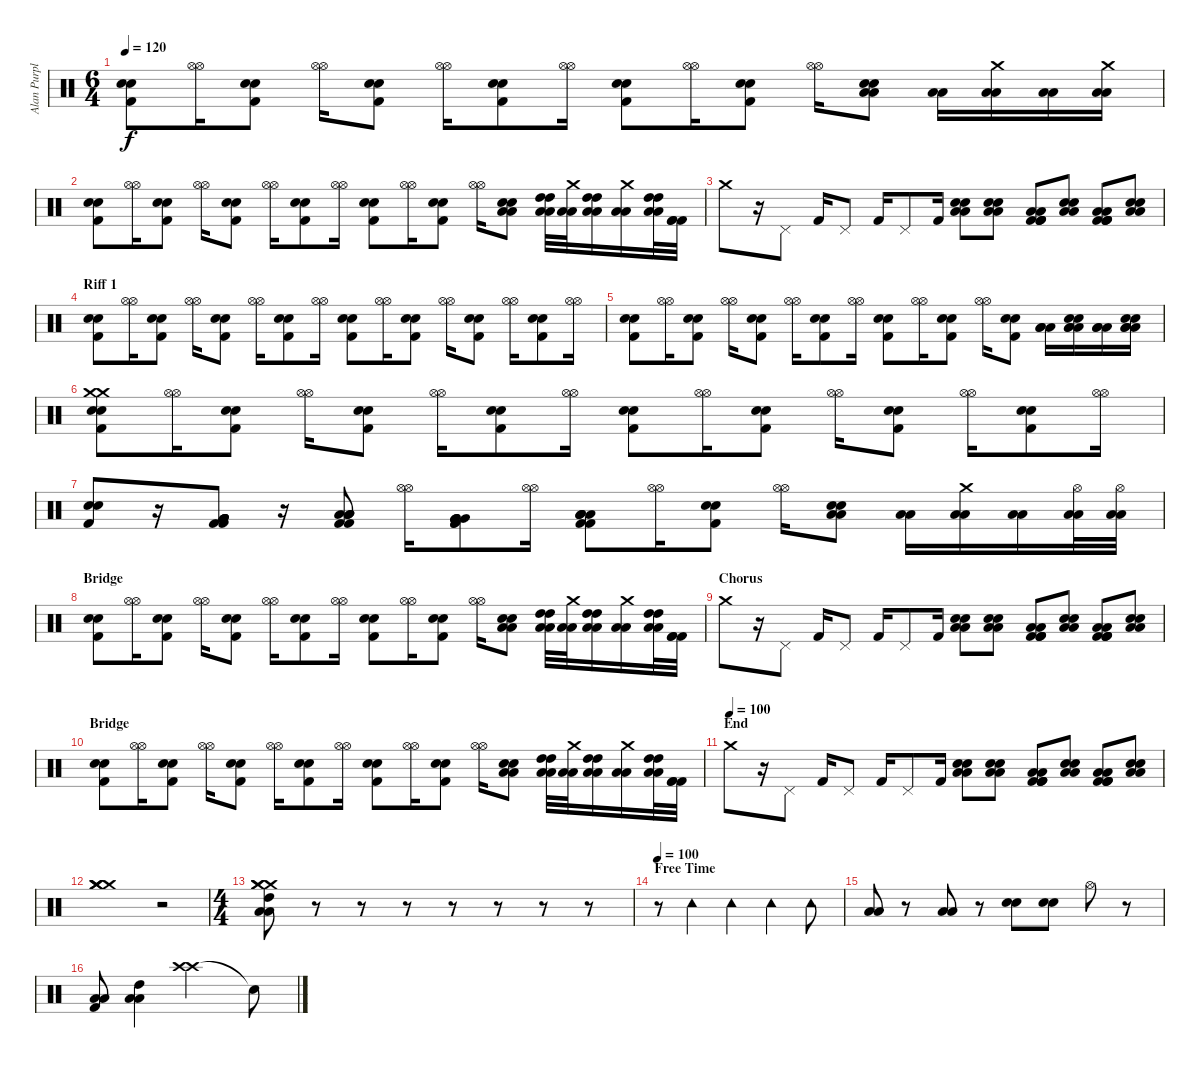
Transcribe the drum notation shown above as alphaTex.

\track ("Alan Purple" "Alan Purpl") {instrument percussion}
\staff {score}
\articulation defaults
\ts (6 4)
\tempo 120
\clef neutral
\ks c
("Electric Snare (hit)" "Kick (hit) 2" "Electric Snare (hit)").8{dy f} ("Hi-Hat (open)" "Hi-Hat (open)").16 ("Electric Snare (hit)" "Kick (hit) 2" "Electric Snare (hit)").8 ("Hi-Hat (open)" "Hi-Hat (open)").16 ("Electric Snare (hit)" "Kick (hit) 2" "Electric Snare (hit)").8 ("Hi-Hat (open)" "Hi-Hat (open)").16 ("Electric Snare (hit)" "Kick (hit) 2" "Electric Snare (hit)").8 ("Hi-Hat (open)" "Hi-Hat (open)").16 ("Electric Snare (hit)" "Kick (hit) 2" "Electric Snare (hit)").8 ("Hi-Hat (open)" "Hi-Hat (open)").16 ("Electric Snare (hit)" "Kick (hit) 2" "Electric Snare (hit)").8 ("Hi-Hat (open)" "Hi-Hat (open)").16 ("Electric Snare (hit)" "Low Tom (hit)" "Low Tom (hit)" "Electric Snare (hit)").8 ("Low Tom (hit)" "Low Tom (hit)").16 ("Crash medium (hit)" "Low Tom (hit)" "Low Tom (hit)").16 ("Low Tom (hit)" "Low Tom (hit)").16 ("Crash medium (hit)" "Low Tom (hit)" "Low Tom (hit)").16 |
("Electric Snare (hit)" "Kick (hit) 2" "Electric Snare (hit)").8 ("Hi-Hat (open)" "Hi-Hat (open)").16 ("Electric Snare (hit)" "Kick (hit) 2" "Electric Snare (hit)").8 ("Hi-Hat (open)" "Hi-Hat (open)").16 ("Electric Snare (hit)" "Kick (hit) 2" "Electric Snare (hit)").8 ("Hi-Hat (open)" "Hi-Hat (open)").16 ("Electric Snare (hit)" "Kick (hit) 2" "Electric Snare (hit)").8 ("Hi-Hat (open)" "Hi-Hat (open)").16 ("Electric Snare (hit)" "Kick (hit) 2" "Electric Snare (hit)").8 ("Hi-Hat (open)" "Hi-Hat (open)").16 ("Electric Snare (hit)" "Kick (hit) 2" "Electric Snare (hit)").8 ("Hi-Hat (open)" "Hi-Hat (open)").16 ("Electric Snare (hit)" "Low Tom (hit)" "Low Tom (hit)" "Electric Snare (hit)").8 ("High Tom (hit)" "Low Tom (hit)" "Low Tom (hit)" "High Tom (hit)").32 ("Crash medium (hit)" "Low Tom (hit)" "Low Tom (hit)").32 ("High Tom (hit)" "Low Tom (hit)" "Low Tom (hit)" "High Tom (hit)").16 ("Crash medium (hit)" "Low Tom (hit)" "Low Tom (hit)").16 ("High Tom (hit)" "Low Tom (hit)" "Low Tom (hit)" "High Tom (hit)").32 ("Kick (hit) 2" "Kick (hit) 2" "Kick (hit) 2").32 |
"Crash medium (hit)".8 r.16 "Pedal Hi-Hat (hit)".8 "Kick (hit) 2".16 "Pedal Hi-Hat (hit)".8 "Kick (hit) 2".16 "Pedal Hi-Hat (hit)".8 "Kick (hit) 2".16 ("Electric Snare (hit)" "Low Tom (hit)" "Low Tom (hit)" "Electric Snare (hit)").8 ("Electric Snare (hit)" "Low Tom (hit)" "Low Tom (hit)" "Electric Snare (hit)").8 ("Kick (hit) 2" "Kick (hit) 2" "Low Tom (hit)" "Low Tom (hit)" "Kick (hit) 2" "Kick (hit) 2").8 ("Electric Snare (hit)" "Low Tom (hit)" "Low Tom (hit)" "Electric Snare (hit)").8 ("Kick (hit) 2" "Kick (hit) 2" "Low Tom (hit)" "Low Tom (hit)" "Kick (hit) 2" "Kick (hit) 2").8 ("Electric Snare (hit)" "Low Tom (hit)" "Low Tom (hit)" "Electric Snare (hit)").8 |
\section ("" "Riff 1")
("Electric Snare (hit)" "Kick (hit) 2" "Electric Snare (hit)").8 ("Hi-Hat (open)" "Hi-Hat (open)").16 ("Electric Snare (hit)" "Kick (hit) 2" "Electric Snare (hit)").8 ("Hi-Hat (open)" "Hi-Hat (open)").16 ("Electric Snare (hit)" "Kick (hit) 2" "Electric Snare (hit)").8 ("Hi-Hat (open)" "Hi-Hat (open)").16 ("Electric Snare (hit)" "Kick (hit) 2" "Electric Snare (hit)").8 ("Hi-Hat (open)" "Hi-Hat (open)").16 ("Electric Snare (hit)" "Kick (hit) 2" "Electric Snare (hit)").8 ("Hi-Hat (open)" "Hi-Hat (open)").16 ("Electric Snare (hit)" "Kick (hit) 2" "Electric Snare (hit)").8 ("Hi-Hat (open)" "Hi-Hat (open)").16 ("Electric Snare (hit)" "Kick (hit) 2" "Electric Snare (hit)").8 ("Hi-Hat (open)" "Hi-Hat (open)").16 ("Electric Snare (hit)" "Kick (hit) 2" "Electric Snare (hit)").8 ("Hi-Hat (open)" "Hi-Hat (open)").16 |
("Electric Snare (hit)" "Kick (hit) 2" "Electric Snare (hit)").8 ("Hi-Hat (open)" "Hi-Hat (open)").16 ("Electric Snare (hit)" "Kick (hit) 2" "Electric Snare (hit)").8 ("Hi-Hat (open)" "Hi-Hat (open)").16 ("Electric Snare (hit)" "Kick (hit) 2" "Electric Snare (hit)").8 ("Hi-Hat (open)" "Hi-Hat (open)").16 ("Electric Snare (hit)" "Kick (hit) 2" "Electric Snare (hit)").8 ("Hi-Hat (open)" "Hi-Hat (open)").16 ("Electric Snare (hit)" "Kick (hit) 2" "Electric Snare (hit)").8 ("Hi-Hat (open)" "Hi-Hat (open)").16 ("Electric Snare (hit)" "Kick (hit) 2" "Electric Snare (hit)").8 ("Hi-Hat (open)" "Hi-Hat (open)").16 ("Electric Snare (hit)" "Kick (hit) 2" "Electric Snare (hit)").8 ("Low Tom (hit)" "Low Tom (hit)" "Low Tom (hit)").16 ("Low Tom (hit)" "Low Tom (hit)" "Low Tom (hit)" "Electric Snare (hit)" "Electric Snare (hit)").16 ("Low Tom (hit)" "Low Tom (hit)" "Low Tom (hit)").16 ("Low Tom (hit)" "Low Tom (hit)" "Low Tom (hit)" "Electric Snare (hit)" "Electric Snare (hit)").16 |
("Electric Snare (hit)" "Crash medium (hit)" "Crash medium (hit)" "Kick (hit) 2" "Electric Snare (hit)").8 ("Hi-Hat (open)" "Hi-Hat (open)").16 ("Electric Snare (hit)" "Kick (hit) 2" "Electric Snare (hit)").8 ("Hi-Hat (open)" "Hi-Hat (open)").16 ("Electric Snare (hit)" "Kick (hit) 2" "Electric Snare (hit)").8 ("Hi-Hat (open)" "Hi-Hat (open)").16 ("Electric Snare (hit)" "Kick (hit) 2" "Electric Snare (hit)").8 ("Hi-Hat (open)" "Hi-Hat (open)").16 ("Electric Snare (hit)" "Kick (hit) 2" "Electric Snare (hit)").8 ("Hi-Hat (open)" "Hi-Hat (open)").16 ("Electric Snare (hit)" "Kick (hit) 2" "Electric Snare (hit)").8 ("Hi-Hat (open)" "Hi-Hat (open)").16 ("Electric Snare (hit)" "Kick (hit) 2" "Electric Snare (hit)").8 ("Hi-Hat (open)" "Hi-Hat (open)").16 ("Electric Snare (hit)" "Kick (hit) 2" "Electric Snare (hit)").8 ("Hi-Hat (open)" "Hi-Hat (open)").16 |
("Electric Snare (hit)" "Kick (hit) 2" "Electric Snare (hit)").8 r.16 ("Very Low Tom (hit)" "Very Low Tom (hit)" "Kick (hit) 2" "Kick (hit) 2" "Very Low Tom (hit)" "Very Low Tom (hit)").8 r.16 ("Low Tom (hit)" "Low Tom (hit)" "Kick (hit) 2" "Kick (hit) 2" "Low Tom (hit)" "Low Tom (hit)").8 ("Hi-Hat (open)" "Hi-Hat (open)").16 ("Very Low Tom (hit)" "Very Low Tom (hit)" "Kick (hit) 2" "Kick (hit) 2" "Very Low Tom (hit)" "Very Low Tom (hit)").8 ("Hi-Hat (open)" "Hi-Hat (open)").16 ("Low Tom (hit)" "Low Tom (hit)" "Kick (hit) 2" "Kick (hit) 2" "Low Tom (hit)" "Low Tom (hit)").8 ("Hi-Hat (open)" "Hi-Hat (open)").16 ("Electric Snare (hit)" "Kick (hit) 2" "Electric Snare (hit)").8 ("Hi-Hat (open)" "Hi-Hat (open)").16 ("Electric Snare (hit)" "Low Tom (hit)" "Low Tom (hit)" "Electric Snare (hit)").8 ("Low Tom (hit)" "Low Tom (hit)").16 ("Crash medium (hit)" "Low Tom (hit)" "Low Tom (hit)").16 ("Low Tom (hit)" "Low Tom (hit)").16 ("Hi-Hat (open)" "Low Tom (hit)" "Low Tom (hit)").32 ("Hi-Hat (open)" "Low Tom (hit)" "Low Tom (hit)").32 |
\section ("" "Bridge")
("Electric Snare (hit)" "Kick (hit) 2" "Electric Snare (hit)").8 ("Hi-Hat (open)" "Hi-Hat (open)").16 ("Electric Snare (hit)" "Kick (hit) 2" "Electric Snare (hit)").8 ("Hi-Hat (open)" "Hi-Hat (open)").16 ("Electric Snare (hit)" "Kick (hit) 2" "Electric Snare (hit)").8 ("Hi-Hat (open)" "Hi-Hat (open)").16 ("Electric Snare (hit)" "Kick (hit) 2" "Electric Snare (hit)").8 ("Hi-Hat (open)" "Hi-Hat (open)").16 ("Electric Snare (hit)" "Kick (hit) 2" "Electric Snare (hit)").8 ("Hi-Hat (open)" "Hi-Hat (open)").16 ("Electric Snare (hit)" "Kick (hit) 2" "Electric Snare (hit)").8 ("Hi-Hat (open)" "Hi-Hat (open)").16 ("Electric Snare (hit)" "Low Tom (hit)" "Low Tom (hit)" "Electric Snare (hit)").8 ("High Tom (hit)" "Low Tom (hit)" "Low Tom (hit)" "High Tom (hit)").32 ("Crash medium (hit)" "Low Tom (hit)" "Low Tom (hit)").32 ("High Tom (hit)" "Low Tom (hit)" "Low Tom (hit)" "High Tom (hit)").16 ("Crash medium (hit)" "Low Tom (hit)" "Low Tom (hit)").16 ("High Tom (hit)" "Low Tom (hit)" "Low Tom (hit)" "High Tom (hit)").32 ("Kick (hit) 2" "Kick (hit) 2" "Kick (hit) 2").32 |
\section ("" "Chorus")
"Crash medium (hit)".8 r.16 "Pedal Hi-Hat (hit)".8 "Kick (hit) 2".16 "Pedal Hi-Hat (hit)".8 "Kick (hit) 2".16 "Pedal Hi-Hat (hit)".8 "Kick (hit) 2".16 ("Electric Snare (hit)" "Low Tom (hit)" "Low Tom (hit)" "Electric Snare (hit)").8 ("Electric Snare (hit)" "Low Tom (hit)" "Low Tom (hit)" "Electric Snare (hit)").8 ("Kick (hit) 2" "Kick (hit) 2" "Low Tom (hit)" "Low Tom (hit)" "Kick (hit) 2" "Kick (hit) 2").8 ("Electric Snare (hit)" "Low Tom (hit)" "Low Tom (hit)" "Electric Snare (hit)").8 ("Kick (hit) 2" "Kick (hit) 2" "Low Tom (hit)" "Low Tom (hit)" "Kick (hit) 2" "Kick (hit) 2").8 ("Electric Snare (hit)" "Low Tom (hit)" "Low Tom (hit)" "Electric Snare (hit)").8 |
\section ("" "Bridge ")
("Electric Snare (hit)" "Kick (hit) 2" "Electric Snare (hit)").8 ("Hi-Hat (open)" "Hi-Hat (open)").16 ("Electric Snare (hit)" "Kick (hit) 2" "Electric Snare (hit)").8 ("Hi-Hat (open)" "Hi-Hat (open)").16 ("Electric Snare (hit)" "Kick (hit) 2" "Electric Snare (hit)").8 ("Hi-Hat (open)" "Hi-Hat (open)").16 ("Electric Snare (hit)" "Kick (hit) 2" "Electric Snare (hit)").8 ("Hi-Hat (open)" "Hi-Hat (open)").16 ("Electric Snare (hit)" "Kick (hit) 2" "Electric Snare (hit)").8 ("Hi-Hat (open)" "Hi-Hat (open)").16 ("Electric Snare (hit)" "Kick (hit) 2" "Electric Snare (hit)").8 ("Hi-Hat (open)" "Hi-Hat (open)").16 ("Electric Snare (hit)" "Low Tom (hit)" "Low Tom (hit)" "Electric Snare (hit)").8 ("High Tom (hit)" "Low Tom (hit)" "Low Tom (hit)" "High Tom (hit)").32 ("Crash medium (hit)" "Low Tom (hit)" "Low Tom (hit)").32 ("High Tom (hit)" "Low Tom (hit)" "Low Tom (hit)" "High Tom (hit)").16 ("Crash medium (hit)" "Low Tom (hit)" "Low Tom (hit)").16 ("High Tom (hit)" "Low Tom (hit)" "Low Tom (hit)" "High Tom (hit)").32 ("Kick (hit) 2" "Kick (hit) 2" "Kick (hit) 2").32 |
\section ("" "End")
\tempo (100)
"Crash medium (hit)".8 r.16 "Pedal Hi-Hat (hit)".8 "Kick (hit) 2".16 "Pedal Hi-Hat (hit)".8 "Kick (hit) 2".16 "Pedal Hi-Hat (hit)".8 "Kick (hit) 2".16 ("Electric Snare (hit)" "Low Tom (hit)" "Low Tom (hit)" "Electric Snare (hit)").8 ("Electric Snare (hit)" "Low Tom (hit)" "Low Tom (hit)" "Electric Snare (hit)").8 ("Kick (hit) 2" "Kick (hit) 2" "Low Tom (hit)" "Low Tom (hit)" "Kick (hit) 2" "Kick (hit) 2").8 ("Electric Snare (hit)" "Low Tom (hit)" "Low Tom (hit)" "Electric Snare (hit)").8 ("Kick (hit) 2" "Kick (hit) 2" "Low Tom (hit)" "Low Tom (hit)" "Kick (hit) 2" "Kick (hit) 2").8 ("Electric Snare (hit)" "Low Tom (hit)" "Low Tom (hit)" "Electric Snare (hit)").8 |
("Crash medium (hit)" "Crash medium (hit)" "Crash medium (hit)" "Crash medium (hit)").1 r.2 |
\ts (4 4)
("Crash medium (hit)" "Crash medium (hit)" "Crash medium (hit)" "High Tom (hit)" "Low Tom (hit)" "Low Tom (hit)").8 r.8 r.8 r.8 r.8 r.8 r.8 r.8 |
\section ("" "Free Time ")
\tempo 100
r.8 "Tambourine (hit)".4 "Tambourine (hit)".4 "Tambourine (hit)".4 "Tambourine (hit)".8 |
("Low Tom (hit)" "Low Tom (hit)").8 r.8 ("Low Floor Tom (hit)" "Low Floor Tom (hit)").8 r.8 ("Electric Snare (hit)" "Electric Snare (hit)").8 ("Electric Snare (hit)" "Electric Snare (hit)").8 "Hi-Hat (open)".8 r.8 |
("Kick (hit) 2" "Low Floor Tom (hit)" "Low Floor Tom (hit)").8 ("High Tom (hit)" "Low Tom (hit)" "Low Tom (hit)").4 ("Crash high (hit)" "Crash high (hit)").2 "Snare (hit)"{t}.8
